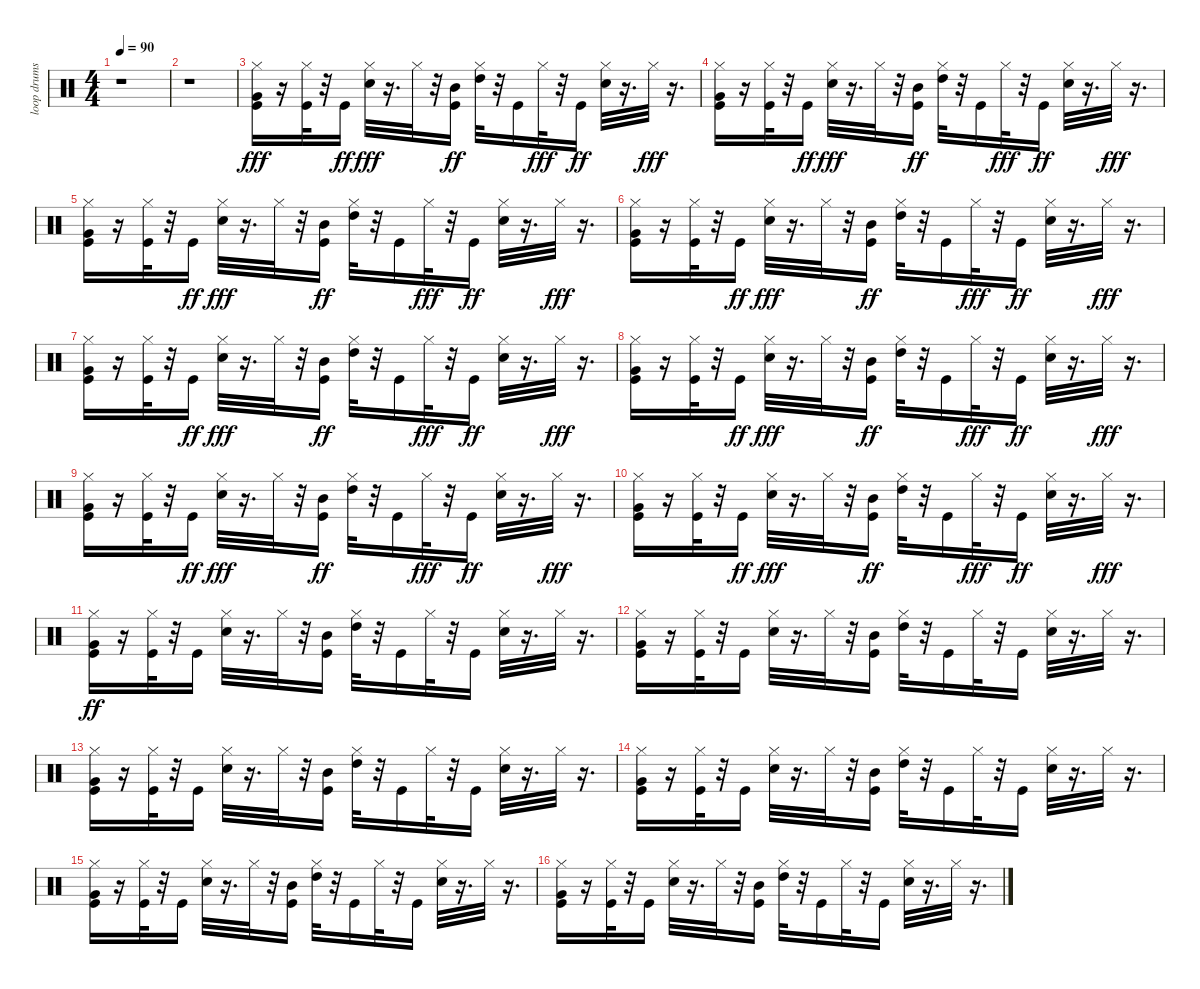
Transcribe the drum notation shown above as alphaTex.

\track ("loop drums" "loop drums") {instrument percussion}
\staff {score}
\articulation defaults
\ts (4 4)
\tempo 90
\clef neutral
\ks c
r.1{dy fff} |
r.1 |
("Very Low Tom (hit)" "Kick (hit)" "Hi-Hat (closed)").16 r.16 ("Kick (hit)" "Hi-Hat (closed)").32 r.32 "Kick (hit)".16{dy ff} ("Hi-Hat (closed)" "Electric Snare (hit)").32{dy fff} r.16{d} "Hi-Hat (closed)".32 r.32 ("Kick (hit)" "Mid Tom (hit)").16{dy ff} ("Hi-Hat (closed)" "High Tom (hit)").32 r.32 "Kick (hit)".16 "Hi-Hat (closed)".32{dy fff} r.32 "Kick (hit)".16{dy ff} ("Hi-Hat (closed)" "Electric Snare (hit)").32 r.16{d} "Hi-Hat (closed)".32{dy fff} r.16{d} |
("Very Low Tom (hit)" "Kick (hit)" "Hi-Hat (closed)").16 r.16 ("Kick (hit)" "Hi-Hat (closed)").32 r.32 "Kick (hit)".16{dy ff} ("Hi-Hat (closed)" "Electric Snare (hit)").32{dy fff} r.16{d} "Hi-Hat (closed)".32 r.32 ("Kick (hit)" "Mid Tom (hit)").16{dy ff} ("Hi-Hat (closed)" "High Tom (hit)").32 r.32 "Kick (hit)".16 "Hi-Hat (closed)".32{dy fff} r.32 "Kick (hit)".16{dy ff} ("Hi-Hat (closed)" "Electric Snare (hit)").32 r.16{d} "Hi-Hat (closed)".32{dy fff} r.16{d} |
("Very Low Tom (hit)" "Kick (hit)" "Hi-Hat (closed)").16 r.16 ("Kick (hit)" "Hi-Hat (closed)").32 r.32 "Kick (hit)".16{dy ff} ("Hi-Hat (closed)" "Electric Snare (hit)").32{dy fff} r.16{d} "Hi-Hat (closed)".32 r.32 ("Kick (hit)" "Mid Tom (hit)").16{dy ff} ("Hi-Hat (closed)" "High Tom (hit)").32 r.32 "Kick (hit)".16 "Hi-Hat (closed)".32{dy fff} r.32 "Kick (hit)".16{dy ff} ("Hi-Hat (closed)" "Electric Snare (hit)").32 r.16{d} "Hi-Hat (closed)".32{dy fff} r.16{d} |
("Very Low Tom (hit)" "Kick (hit)" "Hi-Hat (closed)").16 r.16 ("Kick (hit)" "Hi-Hat (closed)").32 r.32 "Kick (hit)".16{dy ff} ("Hi-Hat (closed)" "Electric Snare (hit)").32{dy fff} r.16{d} "Hi-Hat (closed)".32 r.32 ("Kick (hit)" "Mid Tom (hit)").16{dy ff} ("Hi-Hat (closed)" "High Tom (hit)").32 r.32 "Kick (hit)".16 "Hi-Hat (closed)".32{dy fff} r.32 "Kick (hit)".16{dy ff} ("Hi-Hat (closed)" "Electric Snare (hit)").32 r.16{d} "Hi-Hat (closed)".32{dy fff} r.16{d} |
("Very Low Tom (hit)" "Kick (hit)" "Hi-Hat (closed)").16 r.16 ("Kick (hit)" "Hi-Hat (closed)").32 r.32 "Kick (hit)".16{dy ff} ("Hi-Hat (closed)" "Electric Snare (hit)").32{dy fff} r.16{d} "Hi-Hat (closed)".32 r.32 ("Kick (hit)" "Mid Tom (hit)").16{dy ff} ("Hi-Hat (closed)" "High Tom (hit)").32 r.32 "Kick (hit)".16 "Hi-Hat (closed)".32{dy fff} r.32 "Kick (hit)".16{dy ff} ("Hi-Hat (closed)" "Electric Snare (hit)").32 r.16{d} "Hi-Hat (closed)".32{dy fff} r.16{d} |
("Very Low Tom (hit)" "Kick (hit)" "Hi-Hat (closed)").16 r.16 ("Kick (hit)" "Hi-Hat (closed)").32 r.32 "Kick (hit)".16{dy ff} ("Hi-Hat (closed)" "Electric Snare (hit)").32{dy fff} r.16{d} "Hi-Hat (closed)".32 r.32 ("Kick (hit)" "Mid Tom (hit)").16{dy ff} ("Hi-Hat (closed)" "High Tom (hit)").32 r.32 "Kick (hit)".16 "Hi-Hat (closed)".32{dy fff} r.32 "Kick (hit)".16{dy ff} ("Hi-Hat (closed)" "Electric Snare (hit)").32 r.16{d} "Hi-Hat (closed)".32{dy fff} r.16{d} |
("Very Low Tom (hit)" "Kick (hit)" "Hi-Hat (closed)").16 r.16 ("Kick (hit)" "Hi-Hat (closed)").32 r.32 "Kick (hit)".16{dy ff} ("Hi-Hat (closed)" "Electric Snare (hit)").32{dy fff} r.16{d} "Hi-Hat (closed)".32 r.32 ("Kick (hit)" "Mid Tom (hit)").16{dy ff} ("Hi-Hat (closed)" "High Tom (hit)").32 r.32 "Kick (hit)".16 "Hi-Hat (closed)".32{dy fff} r.32 "Kick (hit)".16{dy ff} ("Hi-Hat (closed)" "Electric Snare (hit)").32 r.16{d} "Hi-Hat (closed)".32{dy fff} r.16{d} |
("Very Low Tom (hit)" "Kick (hit)" "Hi-Hat (closed)").16 r.16 ("Kick (hit)" "Hi-Hat (closed)").32 r.32 "Kick (hit)".16{dy ff} ("Hi-Hat (closed)" "Electric Snare (hit)").32{dy fff} r.16{d} "Hi-Hat (closed)".32 r.32 ("Kick (hit)" "Mid Tom (hit)").16{dy ff} ("Hi-Hat (closed)" "High Tom (hit)").32 r.32 "Kick (hit)".16 "Hi-Hat (closed)".32{dy fff} r.32 "Kick (hit)".16{dy ff} ("Hi-Hat (closed)" "Electric Snare (hit)").32 r.16{d} "Hi-Hat (closed)".32{dy fff} r.16{d} |
("Kick (hit)" "Hi-Hat (closed)" "Very Low Tom (hit)").16{dy ff} r.16 ("Kick (hit)" "Hi-Hat (closed)").32 r.32 "Kick (hit)".16 ("Hi-Hat (closed)" "Electric Snare (hit)").32 r.16{d} "Hi-Hat (closed)".32 r.32 ("Kick (hit)" "Mid Tom (hit)").16 ("Hi-Hat (closed)" "High Tom (hit)").32 r.32 "Kick (hit)".16 "Hi-Hat (closed)".32 r.32 "Kick (hit)".16 ("Hi-Hat (closed)" "Electric Snare (hit)").32 r.16{d} "Hi-Hat (closed)".32 r.16{d} |
("Very Low Tom (hit)" "Kick (hit)" "Hi-Hat (closed)").16 r.16 ("Kick (hit)" "Hi-Hat (closed)").32 r.32 "Kick (hit)".16 ("Hi-Hat (closed)" "Electric Snare (hit)").32 r.16{d} "Hi-Hat (closed)".32 r.32 ("Kick (hit)" "Mid Tom (hit)").16 ("Hi-Hat (closed)" "High Tom (hit)").32 r.32 "Kick (hit)".16 "Hi-Hat (closed)".32 r.32 "Kick (hit)".16 ("Hi-Hat (closed)" "Electric Snare (hit)").32 r.16{d} "Hi-Hat (closed)".32 r.16{d} |
("Very Low Tom (hit)" "Kick (hit)" "Hi-Hat (closed)").16 r.16 ("Kick (hit)" "Hi-Hat (closed)").32 r.32 "Kick (hit)".16 ("Hi-Hat (closed)" "Electric Snare (hit)").32 r.16{d} "Hi-Hat (closed)".32 r.32 ("Kick (hit)" "Mid Tom (hit)").16 ("Hi-Hat (closed)" "High Tom (hit)").32 r.32 "Kick (hit)".16 "Hi-Hat (closed)".32 r.32 "Kick (hit)".16 ("Hi-Hat (closed)" "Electric Snare (hit)").32 r.16{d} "Hi-Hat (closed)".32 r.16{d} |
("Very Low Tom (hit)" "Kick (hit)" "Hi-Hat (closed)").16 r.16 ("Kick (hit)" "Hi-Hat (closed)").32 r.32 "Kick (hit)".16 ("Hi-Hat (closed)" "Electric Snare (hit)").32 r.16{d} "Hi-Hat (closed)".32 r.32 ("Kick (hit)" "Mid Tom (hit)").16 ("Hi-Hat (closed)" "High Tom (hit)").32 r.32 "Kick (hit)".16 "Hi-Hat (closed)".32 r.32 "Kick (hit)".16 ("Hi-Hat (closed)" "Electric Snare (hit)").32 r.16{d} "Hi-Hat (closed)".32 r.16{d} |
("Kick (hit)" "Hi-Hat (closed)" "Very Low Tom (hit)").16 r.16 ("Kick (hit)" "Hi-Hat (closed)").32 r.32 "Kick (hit)".16 ("Hi-Hat (closed)" "Electric Snare (hit)").32 r.16{d} "Hi-Hat (closed)".32 r.32 ("Kick (hit)" "Mid Tom (hit)").16 ("Hi-Hat (closed)" "High Tom (hit)").32 r.32 "Kick (hit)".16 "Hi-Hat (closed)".32 r.32 "Kick (hit)".16 ("Hi-Hat (closed)" "Electric Snare (hit)").32 r.16{d} "Hi-Hat (closed)".32 r.16{d} |
("Very Low Tom (hit)" "Kick (hit)" "Hi-Hat (closed)").16 r.16 ("Kick (hit)" "Hi-Hat (closed)").32 r.32 "Kick (hit)".16 ("Hi-Hat (closed)" "Electric Snare (hit)").32 r.16{d} "Hi-Hat (closed)".32 r.32 ("Kick (hit)" "Mid Tom (hit)").16 ("Hi-Hat (closed)" "High Tom (hit)").32 r.32 "Kick (hit)".16 "Hi-Hat (closed)".32 r.32 "Kick (hit)".16 ("Hi-Hat (closed)" "Electric Snare (hit)").32 r.16{d} "Hi-Hat (closed)".32 r.16{d}
